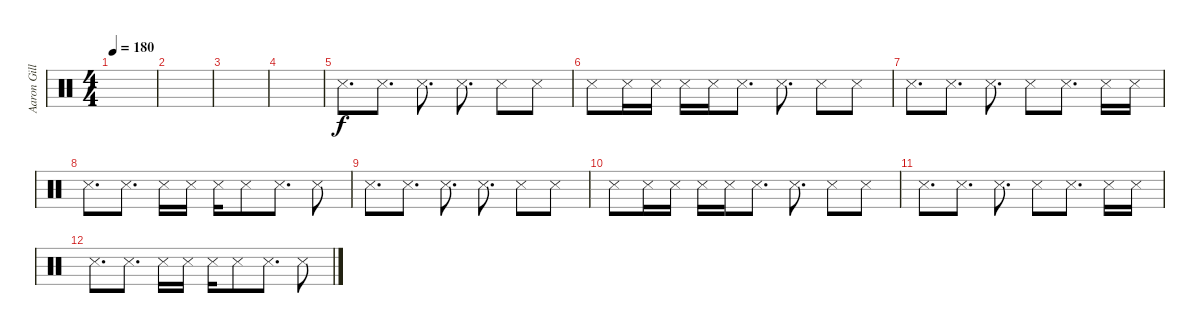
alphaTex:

\track ("Aaron Gillespie 2" "Aaron Gill") {instrument percussion}
\staff {score}
\articulation defaults
\ts (4 4)
\tempo 180
\clef neutral
\ks c
|
|
|
|
"Snare (side stick) 3".8{d} "Snare (side stick) 3".8{d} "Snare (side stick) 3".8{d} "Snare (side stick) 3".8{d} "Snare (side stick) 3".8 "Snare (side stick) 3".8 |
"Snare (side stick) 3".8 "Snare (side stick) 3".16 "Snare (side stick) 3".16 "Snare (side stick) 3".16 "Snare (side stick) 3".16 "Snare (side stick) 3".8{d} "Snare (side stick) 3".8{d} "Snare (side stick) 3".8 "Snare (side stick) 3".8 |
"Snare (side stick) 3".8{d} "Snare (side stick) 3".8{d} "Snare (side stick) 3".8{d} "Snare (side stick) 3".8 "Snare (side stick) 3".8{d} "Snare (side stick) 3".16 "Snare (side stick) 3".16 |
"Snare (side stick) 3".8{d} "Snare (side stick) 3".8{d} "Snare (side stick) 3".16 "Snare (side stick) 3".16 "Snare (side stick) 3".16 "Snare (side stick) 3".8 "Snare (side stick) 3".8{d} "Snare (side stick) 3".8 |
"Snare (side stick) 3".8{d} "Snare (side stick) 3".8{d} "Snare (side stick) 3".8{d} "Snare (side stick) 3".8{d} "Snare (side stick) 3".8 "Snare (side stick) 3".8 |
"Snare (side stick) 3".8 "Snare (side stick) 3".16 "Snare (side stick) 3".16 "Snare (side stick) 3".16 "Snare (side stick) 3".16 "Snare (side stick) 3".8{d} "Snare (side stick) 3".8{d} "Snare (side stick) 3".8 "Snare (side stick) 3".8 |
"Snare (side stick) 3".8{d} "Snare (side stick) 3".8{d} "Snare (side stick) 3".8{d} "Snare (side stick) 3".8 "Snare (side stick) 3".8{d} "Snare (side stick) 3".16 "Snare (side stick) 3".16 |
"Snare (side stick) 3".8{d} "Snare (side stick) 3".8{d} "Snare (side stick) 3".16 "Snare (side stick) 3".16 "Snare (side stick) 3".16 "Snare (side stick) 3".8 "Snare (side stick) 3".8{d} "Snare (side stick) 3".8
